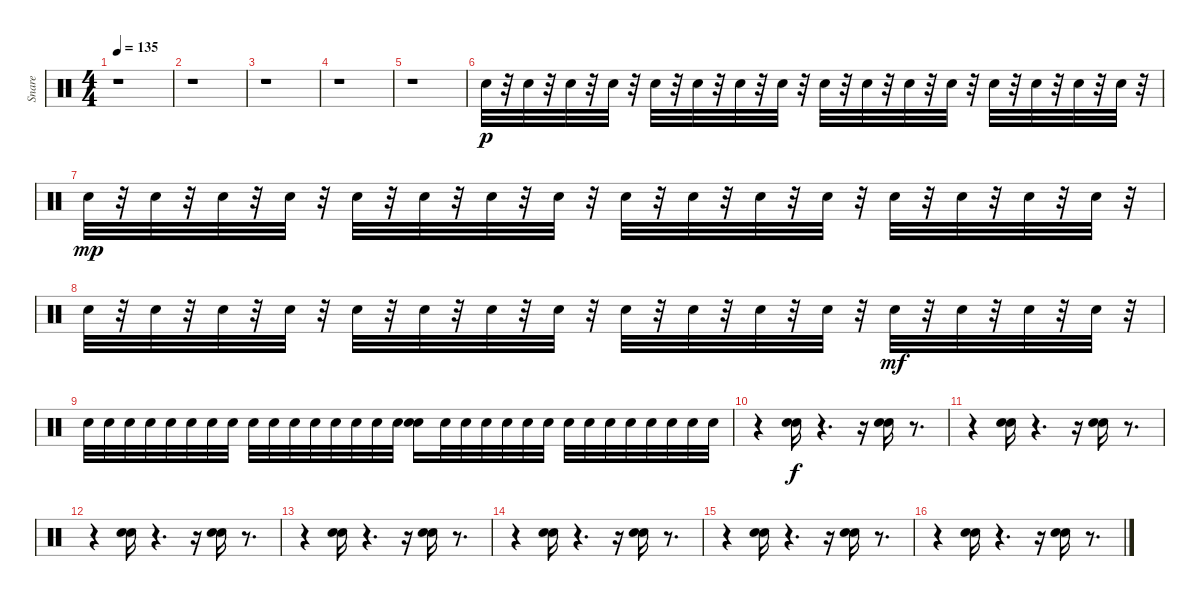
\track ("Snare" "Snare") {instrument percussion}
\staff {score}
\articulation defaults
\ts (4 4)
\tempo 135
\clef neutral
\ks c
r.1{dy f} |
r.1 |
r.1 |
r.1 |
r.1 |
"Snare (hit) 2".32{dy p} r.32 "Snare (hit) 2".32 r.32 "Snare (hit) 2".32 r.32 "Snare (hit) 2".32 r.32 "Snare (hit) 2".32 r.32 "Snare (hit) 2".32 r.32 "Snare (hit) 2".32 r.32 "Snare (hit) 2".32 r.32 "Snare (hit) 2".32 r.32 "Snare (hit) 2".32 r.32 "Snare (hit) 2".32 r.32 "Snare (hit) 2".32 r.32 "Snare (hit) 2".32 r.32 "Snare (hit) 2".32 r.32 "Snare (hit) 2".32 r.32 "Snare (hit) 2".32 r.32 |
"Snare (hit) 2".32{dy mp} r.32 "Snare (hit) 2".32 r.32 "Snare (hit) 2".32 r.32 "Snare (hit) 2".32 r.32 "Snare (hit) 2".32 r.32 "Snare (hit) 2".32 r.32 "Snare (hit) 2".32 r.32 "Snare (hit) 2".32 r.32 "Snare (hit) 2".32 r.32 "Snare (hit) 2".32 r.32 "Snare (hit) 2".32 r.32 "Snare (hit) 2".32 r.32 "Snare (hit) 2".32 r.32 "Snare (hit) 2".32 r.32 "Snare (hit) 2".32 r.32 "Snare (hit) 2".32 r.32 |
"Snare (hit) 2".32 r.32 "Snare (hit) 2".32 r.32 "Snare (hit) 2".32 r.32 "Snare (hit) 2".32 r.32 "Snare (hit) 2".32 r.32 "Snare (hit) 2".32 r.32 "Snare (hit) 2".32 r.32 "Snare (hit) 2".32 r.32 "Snare (hit) 2".32 r.32 "Snare (hit) 2".32 r.32 "Snare (hit) 2".32 r.32 "Snare (hit) 2".32 r.32 "Snare (hit) 2".32{dy mf} r.32 "Snare (hit) 2".32 r.32 "Snare (hit) 2".32 r.32 "Snare (hit) 2".32 r.32 |
"Snare (hit) 2".32 "Snare (hit) 2".32 "Snare (hit) 2".32 "Snare (hit) 2".32 "Snare (hit) 2".32 "Snare (hit) 2".32 "Snare (hit) 2".32 "Snare (hit) 2".32 "Snare (hit) 2".32 "Snare (hit) 2".32 "Snare (hit) 2".32 "Snare (hit) 2".32 "Snare (hit) 2".32 "Snare (hit) 2".32 "Snare (hit) 2".32 "Snare (hit) 2".32 ("Snare (hit) 2" "Snare (hit) 2").16 "Snare (hit) 2".32 "Snare (hit) 2".32 "Snare (hit) 2".32 "Snare (hit) 2".32 "Snare (hit) 2".32 "Snare (hit) 2".32 "Snare (hit) 2".32 "Snare (hit) 2".32 "Snare (hit) 2".32 "Snare (hit) 2".32 "Snare (hit) 2".32 "Snare (hit) 2".32 "Snare (hit) 2".32 "Snare (hit) 2".32 |
r.4 ("Snare (hit) 2" "Hand Clap (hit)").16{dy f} r.4{d} r.16 ("Snare (hit) 2" "Hand Clap (hit)").16 r.8{d} |
r.4 ("Snare (hit) 2" "Hand Clap (hit)").16 r.4{d} r.16 ("Snare (hit) 2" "Hand Clap (hit)").16 r.8{d} |
r.4 ("Hand Clap (hit)" "Snare (hit) 2").16 r.4{d} r.16 ("Hand Clap (hit)" "Snare (hit) 2").16 r.8{d} |
r.4 ("Hand Clap (hit)" "Snare (hit) 2").16 r.4{d} r.16 ("Hand Clap (hit)" "Snare (hit) 2").16 r.8{d} |
r.4 ("Hand Clap (hit)" "Snare (hit) 2").16 r.4{d} r.16 ("Hand Clap (hit)" "Snare (hit) 2").16 r.8{d} |
r.4 ("Snare (hit) 2" "Hand Clap (hit)").16 r.4{d} r.16 ("Snare (hit) 2" "Hand Clap (hit)").16 r.8{d} |
r.4 ("Hand Clap (hit)" "Snare (hit) 2").16 r.4{d} r.16 ("Hand Clap (hit)" "Snare (hit) 2").16 r.8{d}
